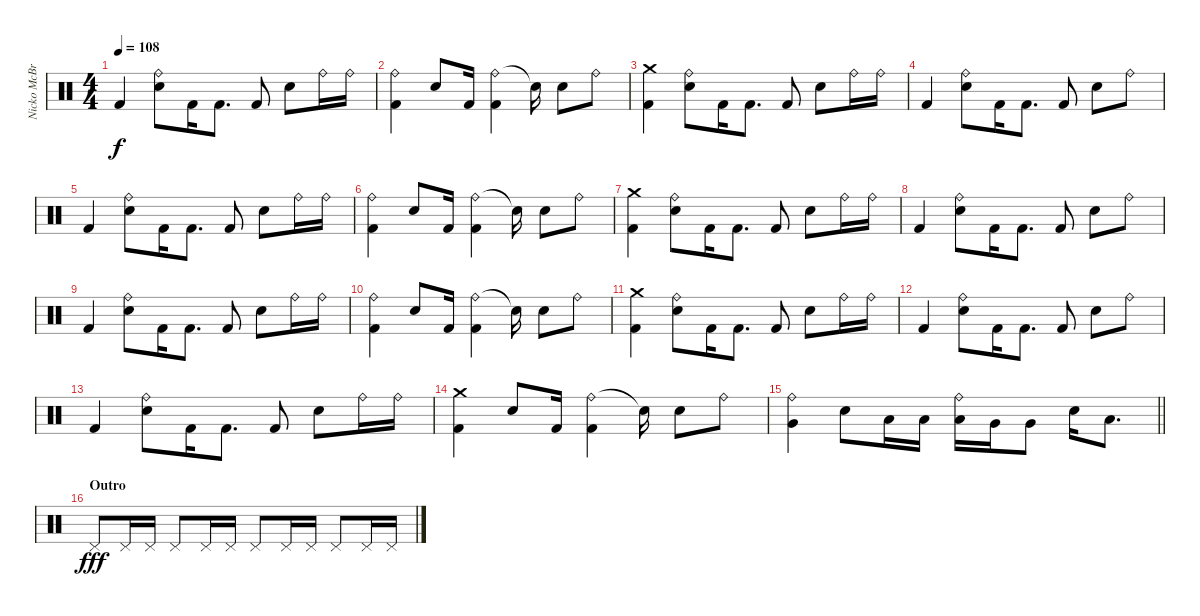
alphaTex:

\track ("Nicko McBrain" "Nicko McBr") {instrument percussion}
\staff {score}
\articulation defaults
\ts (4 4)
\tempo 108
\clef neutral
\ks c "Kick (hit) 2".4{dy f}
("Ride (bell)" "Electric Snare (hit)").8 "Kick (hit) 2".16 "Kick (hit) 2".8{d} "Kick (hit) 2".8 "Electric Snare (hit)".8 "Ride (bell)".16 "Ride (bell)".16 |
("Ride (bell)" "Kick (hit) 2").4 "Electric Snare (hit)".8 "Kick (hit) 2".16 ("Ride (bell)" "Kick (hit) 2").4 "Snare (hit)"{t}.16 "Electric Snare (hit)".8 "Ride (bell)".8 |
("Crash medium (hit)" "Kick (hit) 2").4 ("Ride (bell)" "Electric Snare (hit)").8 "Kick (hit) 2".16 "Kick (hit) 2".8{d} "Kick (hit) 2".8 "Electric Snare (hit)".8 "Ride (bell)".16 "Ride (bell)".16 |
"Kick (hit) 2".4 ("Ride (bell)" "Electric Snare (hit)").8 "Kick (hit) 2".16 "Kick (hit) 2".8{d} "Kick (hit) 2".8 "Electric Snare (hit)".8 "Ride (bell)".8 |
"Kick (hit) 2".4 ("Ride (bell)" "Electric Snare (hit)").8 "Kick (hit) 2".16 "Kick (hit) 2".8{d} "Kick (hit) 2".8 "Electric Snare (hit)".8 "Ride (bell)".16 "Ride (bell)".16 |
("Ride (bell)" "Kick (hit) 2").4 "Electric Snare (hit)".8 "Kick (hit) 2".16 ("Ride (bell)" "Kick (hit) 2").4 "Snare (hit)"{t}.16 "Electric Snare (hit)".8 "Ride (bell)".8 |
("Crash medium (hit)" "Kick (hit) 2").4 ("Ride (bell)" "Electric Snare (hit)").8 "Kick (hit) 2".16 "Kick (hit) 2".8{d} "Kick (hit) 2".8 "Electric Snare (hit)".8 "Ride (bell)".16 "Ride (bell)".16 |
"Kick (hit) 2".4 ("Ride (bell)" "Electric Snare (hit)").8 "Kick (hit) 2".16 "Kick (hit) 2".8{d} "Kick (hit) 2".8 "Electric Snare (hit)".8 "Ride (bell)".8 |
"Kick (hit) 2".4 ("Ride (bell)" "Electric Snare (hit)").8 "Kick (hit) 2".16 "Kick (hit) 2".8{d} "Kick (hit) 2".8 "Electric Snare (hit)".8 "Ride (bell)".16 "Ride (bell)".16 |
("Ride (bell)" "Kick (hit) 2").4 "Electric Snare (hit)".8 "Kick (hit) 2".16 ("Ride (bell)" "Kick (hit) 2").4 "Snare (hit)"{t}.16 "Electric Snare (hit)".8 "Ride (bell)".8 |
("Crash medium (hit)" "Kick (hit) 2").4 ("Ride (bell)" "Electric Snare (hit)").8 "Kick (hit) 2".16 "Kick (hit) 2".8{d} "Kick (hit) 2".8 "Electric Snare (hit)".8 "Ride (bell)".16 "Ride (bell)".16 |
"Kick (hit) 2".4 ("Ride (bell)" "Electric Snare (hit)").8 "Kick (hit) 2".16 "Kick (hit) 2".8{d} "Kick (hit) 2".8 "Electric Snare (hit)".8 "Ride (bell)".8 |
"Kick (hit) 2".4 ("Ride (bell)" "Electric Snare (hit)").8 "Kick (hit) 2".16 "Kick (hit) 2".8{d} "Kick (hit) 2".8 "Electric Snare (hit)".8 "Ride (bell)".16 "Ride (bell)".16 |
("Crash medium (hit)" "Kick (hit) 2").4 "Electric Snare (hit)".8 "Kick (hit) 2".16 ("Ride (bell)" "Kick (hit) 2").4 "Snare (hit)"{t}.16 "Electric Snare (hit)".8 "Ride (bell)".8 |
\barLineRight lightlight
("Ride (bell)" "Very Low Tom (hit)").4 "Electric Snare (hit)".8 "Low Tom (hit)".16 "Low Tom (hit)".16 ("Ride (bell)" "Low Tom (hit)").16 "Very Low Tom (hit)".16 "Very Low Tom (hit)".8 "Electric Snare (hit)".16 "Low Floor Tom (hit)".8{d} |
\section ("" "Outro")
"Pedal Hi-Hat (hit)".8{dy fff volume 6} "Pedal Hi-Hat (hit)".16 "Pedal Hi-Hat (hit)".16 "Pedal Hi-Hat (hit)".8 "Pedal Hi-Hat (hit)".16 "Pedal Hi-Hat (hit)".16 "Pedal Hi-Hat (hit)".8 "Pedal Hi-Hat (hit)".16 "Pedal Hi-Hat (hit)".16 "Pedal Hi-Hat (hit)".8 "Pedal Hi-Hat (hit)".16 "Pedal Hi-Hat (hit)".16
